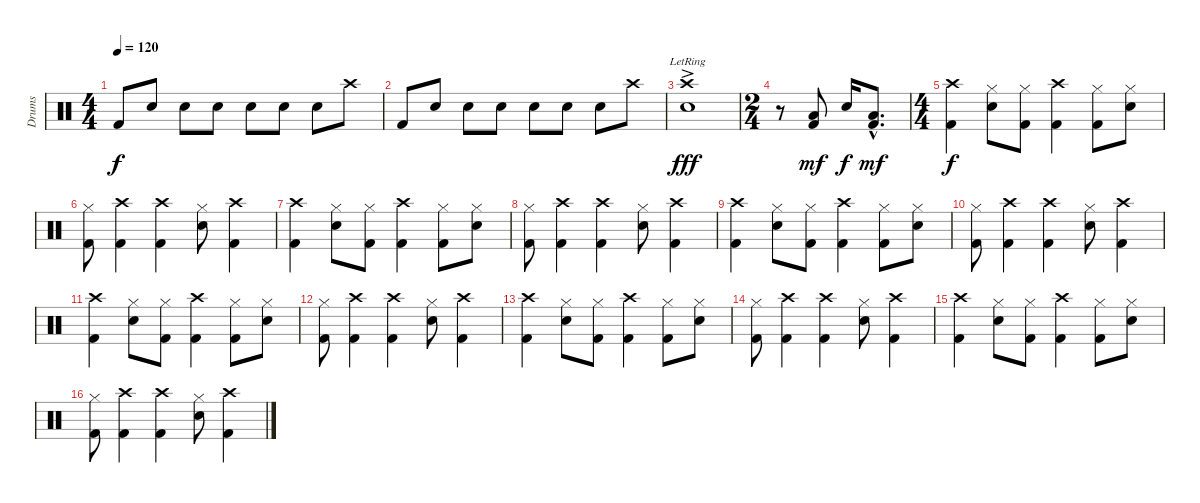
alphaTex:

\track ("Drums" "Drums") {instrument percussion}
\staff {score}
\articulation defaults
\ts (4 4)
\tempo 120
\clef neutral
\ks c "Kick (hit) 2".8{dy f} "Electric Snare (hit)".8 "Electric Snare (hit)".8 "Electric Snare (hit)".8 "Electric Snare (hit)".8 "Electric Snare (hit)".8 "Electric Snare (hit)".8 "Crash high (hit)".8
|
"Kick (hit) 2".8 "Electric Snare (hit)".8 "Electric Snare (hit)".8 "Electric Snare (hit)".8 "Electric Snare (hit)".8 "Electric Snare (hit)".8 "Electric Snare (hit)".8 "Crash high (hit)".8 |
("Crash high (hit)"{ac lr} "Electric Snare (hit)"{ac lr}).1{dy fff} |
\ts (2 4)
r.8 ("Low Floor Tom (hit)" "Kick (hit) 2").8{dy mf} "Electric Snare (hit)".16{dy f} ("Low Floor Tom (hit)"{hac} "Kick (hit) 2"{hac}).8{d dy mf} |
\ts (4 4)
("Crash high (hit)" "Kick (hit) 2").4{dy f} ("Hi-Hat (closed)" "Electric Snare (hit)").8 ("Hi-Hat (closed)" "Kick (hit) 2").8 ("Crash high (hit)" "Kick (hit) 2").4 ("Hi-Hat (closed)" "Kick (hit) 2").8 ("Hi-Hat (closed)" "Electric Snare (hit)").8 |
("Hi-Hat (closed)" "Kick (hit) 2").8 ("Crash high (hit)" "Kick (hit) 2").4 ("Crash high (hit)" "Kick (hit) 2").4 ("Hi-Hat (closed)" "Electric Snare (hit)").8 ("Crash high (hit)" "Kick (hit) 2").4 |
("Crash high (hit)" "Kick (hit) 2").4 ("Hi-Hat (closed)" "Electric Snare (hit)").8 ("Hi-Hat (closed)" "Kick (hit) 2").8 ("Crash high (hit)" "Kick (hit) 2").4 ("Hi-Hat (closed)" "Kick (hit) 2").8 ("Hi-Hat (closed)" "Electric Snare (hit)").8 |
("Hi-Hat (closed)" "Kick (hit) 2").8 ("Crash high (hit)" "Kick (hit) 2").4 ("Crash high (hit)" "Kick (hit) 2").4 ("Hi-Hat (closed)" "Electric Snare (hit)").8 ("Crash high (hit)" "Kick (hit) 2").4 |
("Crash high (hit)" "Kick (hit) 2").4 ("Hi-Hat (closed)" "Electric Snare (hit)").8 ("Hi-Hat (closed)" "Kick (hit) 2").8 ("Crash high (hit)" "Kick (hit) 2").4 ("Hi-Hat (closed)" "Kick (hit) 2").8 ("Hi-Hat (closed)" "Electric Snare (hit)").8 |
("Hi-Hat (closed)" "Kick (hit) 2").8 ("Crash high (hit)" "Kick (hit) 2").4 ("Crash high (hit)" "Kick (hit) 2").4 ("Hi-Hat (closed)" "Electric Snare (hit)").8 ("Crash high (hit)" "Kick (hit) 2").4 |
("Crash high (hit)" "Kick (hit) 2").4 ("Hi-Hat (closed)" "Electric Snare (hit)").8 ("Hi-Hat (closed)" "Kick (hit) 2").8 ("Crash high (hit)" "Kick (hit) 2").4 ("Hi-Hat (closed)" "Kick (hit) 2").8 ("Hi-Hat (closed)" "Electric Snare (hit)").8 |
("Hi-Hat (closed)" "Kick (hit) 2").8 ("Crash high (hit)" "Kick (hit) 2").4 ("Crash high (hit)" "Kick (hit) 2").4 ("Hi-Hat (closed)" "Electric Snare (hit)").8 ("Crash high (hit)" "Kick (hit) 2").4 |
("Crash high (hit)" "Kick (hit) 2").4 ("Hi-Hat (closed)" "Electric Snare (hit)").8 ("Hi-Hat (closed)" "Kick (hit) 2").8 ("Crash high (hit)" "Kick (hit) 2").4 ("Hi-Hat (closed)" "Kick (hit) 2").8 ("Hi-Hat (closed)" "Electric Snare (hit)").8 |
("Hi-Hat (closed)" "Kick (hit) 2").8 ("Crash high (hit)" "Kick (hit) 2").4 ("Crash high (hit)" "Kick (hit) 2").4 ("Hi-Hat (closed)" "Electric Snare (hit)").8 ("Crash high (hit)" "Kick (hit) 2").4 |
("Crash high (hit)" "Kick (hit) 2").4 ("Hi-Hat (closed)" "Electric Snare (hit)").8 ("Hi-Hat (closed)" "Kick (hit) 2").8 ("Crash high (hit)" "Kick (hit) 2").4 ("Hi-Hat (closed)" "Kick (hit) 2").8 ("Hi-Hat (closed)" "Electric Snare (hit)").8 |
("Hi-Hat (closed)" "Kick (hit) 2").8 ("Crash high (hit)" "Kick (hit) 2").4 ("Crash high (hit)" "Kick (hit) 2").4 ("Hi-Hat (closed)" "Electric Snare (hit)").8 ("Crash high (hit)" "Kick (hit) 2").4
